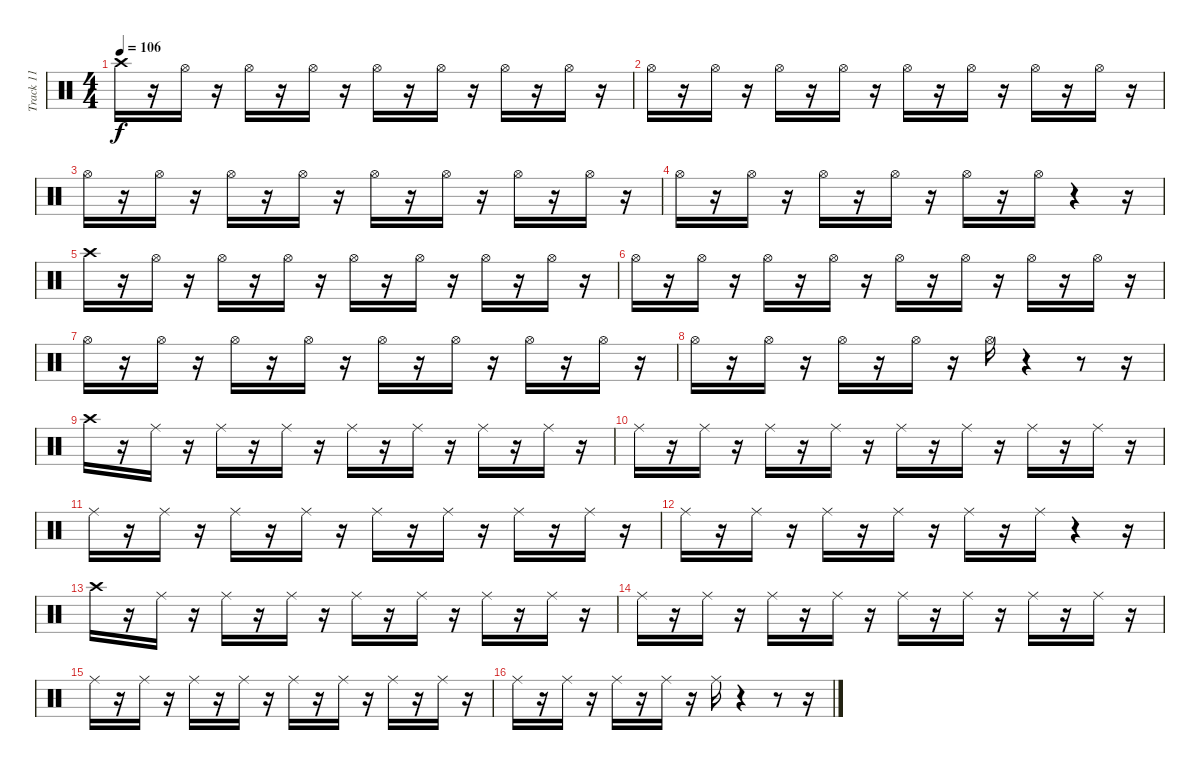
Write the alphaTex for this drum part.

\track ("Track 11" "Track 11") {instrument percussion}
\staff {score}
\articulation defaults
\ts (4 4)
\tempo 106
\clef neutral
\ks c "Crash high (hit)".16{dy f}
r.16 "Hi-Hat (open)".16 r.16 "Hi-Hat (open)".16 r.16 "Hi-Hat (open)".16 r.16 "Hi-Hat (open)".16 r.16 "Hi-Hat (open)".16 r.16 "Hi-Hat (open)".16 r.16 "Hi-Hat (open)".16 r.16 |
"Hi-Hat (open)".16 r.16 "Hi-Hat (open)".16 r.16 "Hi-Hat (open)".16 r.16 "Hi-Hat (open)".16 r.16 "Hi-Hat (open)".16 r.16 "Hi-Hat (open)".16 r.16 "Hi-Hat (open)".16 r.16 "Hi-Hat (open)".16 r.16 |
"Hi-Hat (open)".16 r.16 "Hi-Hat (open)".16 r.16 "Hi-Hat (open)".16 r.16 "Hi-Hat (open)".16 r.16 "Hi-Hat (open)".16 r.16 "Hi-Hat (open)".16 r.16 "Hi-Hat (open)".16 r.16 "Hi-Hat (open)".16 r.16 |
"Hi-Hat (open)".16 r.16 "Hi-Hat (open)".16 r.16 "Hi-Hat (open)".16 r.16 "Hi-Hat (open)".16 r.16 "Hi-Hat (open)".16 r.16 "Hi-Hat (open)".16 r.4 r.16 |
"Crash high (hit)".16 r.16 "Hi-Hat (open)".16 r.16 "Hi-Hat (open)".16 r.16 "Hi-Hat (open)".16 r.16 "Hi-Hat (open)".16 r.16 "Hi-Hat (open)".16 r.16 "Hi-Hat (open)".16 r.16 "Hi-Hat (open)".16 r.16 |
"Hi-Hat (open)".16 r.16 "Hi-Hat (open)".16 r.16 "Hi-Hat (open)".16 r.16 "Hi-Hat (open)".16 r.16 "Hi-Hat (open)".16 r.16 "Hi-Hat (open)".16 r.16 "Hi-Hat (open)".16 r.16 "Hi-Hat (open)".16 r.16 |
"Hi-Hat (open)".16 r.16 "Hi-Hat (open)".16 r.16 "Hi-Hat (open)".16 r.16 "Hi-Hat (open)".16 r.16 "Hi-Hat (open)".16 r.16 "Hi-Hat (open)".16 r.16 "Hi-Hat (open)".16 r.16 "Hi-Hat (open)".16 r.16 |
"Hi-Hat (open)".16 r.16 "Hi-Hat (open)".16 r.16 "Hi-Hat (open)".16 r.16 "Hi-Hat (open)".16 r.16 "Hi-Hat (open)".16 r.4 r.8 r.16 |
"Crash high (hit)".16 r.16 "Ride (middle)".16 r.16 "Ride (middle)".16 r.16 "Ride (middle)".16 r.16 "Ride (middle)".16 r.16 "Ride (middle)".16 r.16 "Ride (middle)".16 r.16 "Ride (middle)".16 r.16 |
"Ride (middle)".16 r.16 "Ride (middle)".16 r.16 "Ride (middle)".16 r.16 "Ride (middle)".16 r.16 "Ride (middle)".16 r.16 "Ride (middle)".16 r.16 "Ride (middle)".16 r.16 "Ride (middle)".16 r.16 |
"Ride (middle)".16 r.16 "Ride (middle)".16 r.16 "Ride (middle)".16 r.16 "Ride (middle)".16 r.16 "Ride (middle)".16 r.16 "Ride (middle)".16 r.16 "Ride (middle)".16 r.16 "Ride (middle)".16 r.16 |
"Ride (middle)".16 r.16 "Ride (middle)".16 r.16 "Ride (middle)".16 r.16 "Ride (middle)".16 r.16 "Ride (middle)".16 r.16 "Ride (middle)".16 r.4 r.16 |
"Crash high (hit)".16 r.16 "Ride (middle)".16 r.16 "Ride (middle)".16 r.16 "Ride (middle)".16 r.16 "Ride (middle)".16 r.16 "Ride (middle)".16 r.16 "Ride (middle)".16 r.16 "Ride (middle)".16 r.16 |
"Ride (middle)".16 r.16 "Ride (middle)".16 r.16 "Ride (middle)".16 r.16 "Ride (middle)".16 r.16 "Ride (middle)".16 r.16 "Ride (middle)".16 r.16 "Ride (middle)".16 r.16 "Ride (middle)".16 r.16 |
"Ride (middle)".16 r.16 "Ride (middle)".16 r.16 "Ride (middle)".16 r.16 "Ride (middle)".16 r.16 "Ride (middle)".16 r.16 "Ride (middle)".16 r.16 "Ride (middle)".16 r.16 "Ride (middle)".16 r.16 |
"Ride (middle)".16 r.16 "Ride (middle)".16 r.16 "Ride (middle)".16 r.16 "Ride (middle)".16 r.16 "Ride (middle)".16 r.4 r.8 r.16
